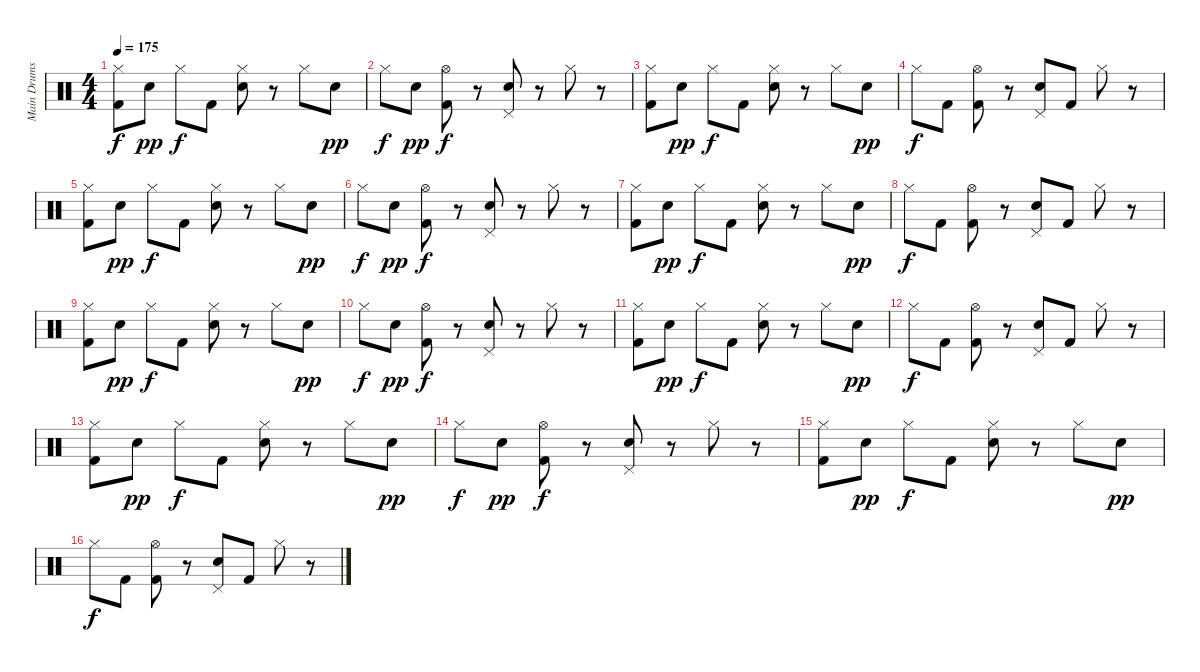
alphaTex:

\track ("Main Drums" "Main Drums") {instrument percussion}
\staff {score}
\articulation defaults
\ts (4 4)
\tempo 175
\clef neutral
\ks c
("Hi-Hat (closed)" "Kick (hit) 2").8{dy f} "Electric Snare (hit)".8{dy pp} "Hi-Hat (closed)".8{dy f} "Kick (hit) 2".8 ("Hi-Hat (closed)" "Electric Snare (hit)").8 r.8 "Hi-Hat (closed)".8 "Electric Snare (hit)".8{dy pp} |
"Hi-Hat (closed)".8{dy f} "Electric Snare (hit)".8{dy pp} ("Hi-Hat (open)" "Kick (hit) 2").8{dy f} r.8 ("Pedal Hi-Hat (hit)" "Electric Snare (hit)").8 r.8 "Hi-Hat (closed)".8 r.8 |
("Hi-Hat (closed)" "Kick (hit) 2").8 "Electric Snare (hit)".8{dy pp} "Hi-Hat (closed)".8{dy f} "Kick (hit) 2".8 ("Hi-Hat (closed)" "Electric Snare (hit)").8 r.8 "Hi-Hat (closed)".8 "Electric Snare (hit)".8{dy pp} |
"Hi-Hat (closed)".8{dy f} "Kick (hit) 2".8 ("Hi-Hat (open)" "Kick (hit) 2").8 r.8 ("Pedal Hi-Hat (hit)" "Electric Snare (hit)").8 "Kick (hit) 2".8 "Hi-Hat (closed)".8 r.8 |
("Hi-Hat (closed)" "Kick (hit) 2").8 "Electric Snare (hit)".8{dy pp} "Hi-Hat (closed)".8{dy f} "Kick (hit) 2".8 ("Hi-Hat (closed)" "Electric Snare (hit)").8 r.8 "Hi-Hat (closed)".8 "Electric Snare (hit)".8{dy pp} |
"Hi-Hat (closed)".8{dy f} "Electric Snare (hit)".8{dy pp} ("Hi-Hat (open)" "Kick (hit) 2").8{dy f} r.8 ("Pedal Hi-Hat (hit)" "Electric Snare (hit)").8 r.8 "Hi-Hat (closed)".8 r.8 |
("Hi-Hat (closed)" "Kick (hit) 2").8 "Electric Snare (hit)".8{dy pp} "Hi-Hat (closed)".8{dy f} "Kick (hit) 2".8 ("Hi-Hat (closed)" "Electric Snare (hit)").8 r.8 "Hi-Hat (closed)".8 "Electric Snare (hit)".8{dy pp} |
"Hi-Hat (closed)".8{dy f} "Kick (hit) 2".8 ("Hi-Hat (open)" "Kick (hit) 2").8 r.8 ("Pedal Hi-Hat (hit)" "Electric Snare (hit)").8 "Kick (hit) 2".8 "Hi-Hat (closed)".8 r.8 |
("Hi-Hat (closed)" "Kick (hit) 2").8 "Electric Snare (hit)".8{dy pp} "Hi-Hat (closed)".8{dy f} "Kick (hit) 2".8 ("Hi-Hat (closed)" "Electric Snare (hit)").8 r.8 "Hi-Hat (closed)".8 "Electric Snare (hit)".8{dy pp} |
"Hi-Hat (closed)".8{dy f} "Electric Snare (hit)".8{dy pp} ("Hi-Hat (open)" "Kick (hit) 2").8{dy f} r.8 ("Pedal Hi-Hat (hit)" "Electric Snare (hit)").8 r.8 "Hi-Hat (closed)".8 r.8 |
("Hi-Hat (closed)" "Kick (hit) 2").8 "Electric Snare (hit)".8{dy pp} "Hi-Hat (closed)".8{dy f} "Kick (hit) 2".8 ("Hi-Hat (closed)" "Electric Snare (hit)").8 r.8 "Hi-Hat (closed)".8 "Electric Snare (hit)".8{dy pp} |
"Hi-Hat (closed)".8{dy f} "Kick (hit) 2".8 ("Hi-Hat (open)" "Kick (hit) 2").8 r.8 ("Pedal Hi-Hat (hit)" "Electric Snare (hit)").8 "Kick (hit) 2".8 "Hi-Hat (closed)".8 r.8 |
("Hi-Hat (closed)" "Kick (hit) 2").8 "Electric Snare (hit)".8{dy pp} "Hi-Hat (closed)".8{dy f} "Kick (hit) 2".8 ("Hi-Hat (closed)" "Electric Snare (hit)").8 r.8 "Hi-Hat (closed)".8 "Electric Snare (hit)".8{dy pp} |
"Hi-Hat (closed)".8{dy f} "Electric Snare (hit)".8{dy pp} ("Hi-Hat (open)" "Kick (hit) 2").8{dy f} r.8 ("Pedal Hi-Hat (hit)" "Electric Snare (hit)").8 r.8 "Hi-Hat (closed)".8 r.8 |
("Hi-Hat (closed)" "Kick (hit) 2").8 "Electric Snare (hit)".8{dy pp} "Hi-Hat (closed)".8{dy f} "Kick (hit) 2".8 ("Hi-Hat (closed)" "Electric Snare (hit)").8 r.8 "Hi-Hat (closed)".8 "Electric Snare (hit)".8{dy pp} |
"Hi-Hat (closed)".8{dy f} "Kick (hit) 2".8 ("Hi-Hat (open)" "Kick (hit) 2").8 r.8 ("Pedal Hi-Hat (hit)" "Electric Snare (hit)").8 "Kick (hit) 2".8 "Hi-Hat (closed)".8 r.8
